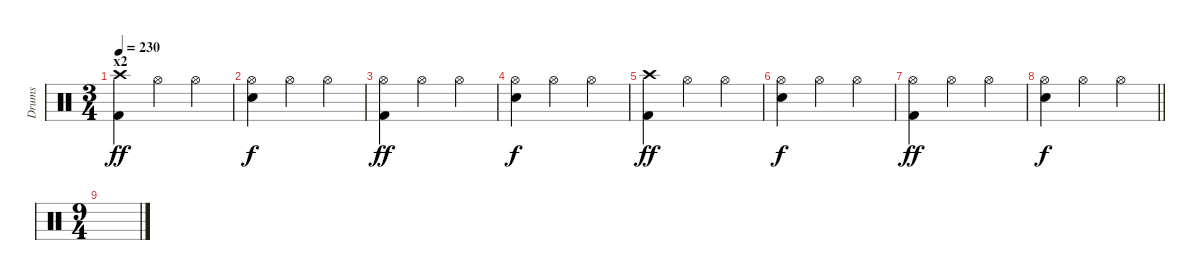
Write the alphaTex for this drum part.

\track ("Drums" "Drums") {instrument percussion}
\staff {score}
\articulation defaults
\ts (3 4)
\section ("" "x2")
\tempo 230
\clef neutral
\ks c
("Crash high (hit)" "Kick (hit) 2").4{dy ff} "Hi-Hat (open)".4 "Hi-Hat (open)".4 |
("Hi-Hat (open)" "Electric Snare (hit)").4{dy f} "Hi-Hat (open)".4 "Hi-Hat (open)".4 |
("Hi-Hat (open)" "Kick (hit) 2").4{dy ff} "Hi-Hat (open)".4 "Hi-Hat (open)".4 |
("Hi-Hat (open)" "Electric Snare (hit)").4{dy f} "Hi-Hat (open)".4 "Hi-Hat (open)".4 |
("Crash high (hit)" "Kick (hit) 2").4{dy ff} "Hi-Hat (open)".4 "Hi-Hat (open)".4 |
("Hi-Hat (open)" "Electric Snare (hit)").4{dy f} "Hi-Hat (open)".4 "Hi-Hat (open)".4 |
("Hi-Hat (open)" "Kick (hit) 2").4{dy ff} "Hi-Hat (open)".4 "Hi-Hat (open)".4 |
\barLineRight lightlight
("Hi-Hat (open)" "Electric Snare (hit)").4{dy f} "Hi-Hat (open)".4 "Hi-Hat (open)".4 |
\ts (9 4)
\section ("" "")
